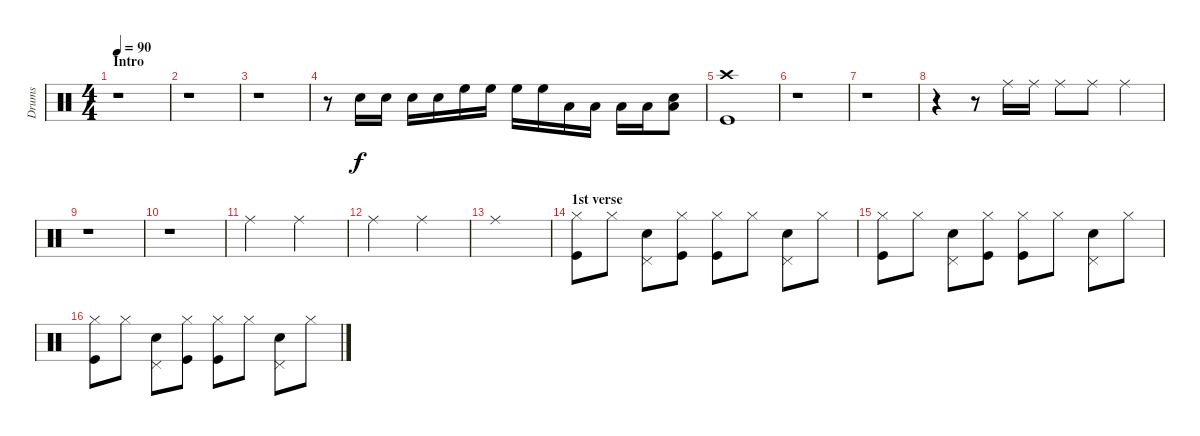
\track ("Drums" "Drums") {instrument percussion}
\staff {score}
\articulation defaults
\ts (4 4)
\section ("" "Intro")
\tempo 90
\clef neutral
\ks c
r.1{dy f} |
r.1 |
r.1 |
r.8 "Snare (hit) 2".16 "Snare (hit) 2".16 "Snare (hit) 2".16 "Snare (hit) 2".16 "High Floor Tom (hit)".16 "High Floor Tom (hit)".16 "High Floor Tom (hit)".16 "High Floor Tom (hit)".16 "Low Tom (hit)".16 "Low Tom (hit)".16 "Low Tom (hit)".16 "Low Tom (hit)".16 ("Snare (hit) 2" "Low Tom (hit)").8 |
("Crash high (hit)" "Kick (hit)").1 |
r.1 |
r.1 |
r.4 r.8 "Ride (middle)".16 "Ride (middle)".16 "Ride (middle)".8 "Ride (middle)".8 "Ride (middle)".4 |
r.1 |
r.1 |
"Ride (middle)".2 "Ride (middle)".2 |
"Ride (middle)".2 "Ride (middle)".2 |
"Ride (middle)".1 |
\section ("" "1st verse")
("Hi-Hat (closed)" "Kick (hit)").8 "Hi-Hat (closed)".8 ("Pedal Hi-Hat (hit)" "Snare (hit) 2").8 ("Hi-Hat (closed)" "Kick (hit)").8 ("Hi-Hat (closed)" "Kick (hit)").8 "Hi-Hat (closed)".8 ("Pedal Hi-Hat (hit)" "Snare (hit) 2").8 "Hi-Hat (closed)".8 |
("Hi-Hat (closed)" "Kick (hit)").8 "Hi-Hat (closed)".8 ("Pedal Hi-Hat (hit)" "Snare (hit) 2").8 ("Hi-Hat (closed)" "Kick (hit)").8 ("Hi-Hat (closed)" "Kick (hit)").8 "Hi-Hat (closed)".8 ("Pedal Hi-Hat (hit)" "Snare (hit) 2").8 "Hi-Hat (closed)".8 |
("Hi-Hat (closed)" "Kick (hit)").8 "Hi-Hat (closed)".8 ("Pedal Hi-Hat (hit)" "Snare (hit) 2").8 ("Hi-Hat (closed)" "Kick (hit)").8 ("Hi-Hat (closed)" "Kick (hit)").8 "Hi-Hat (closed)".8 ("Pedal Hi-Hat (hit)" "Snare (hit) 2").8 "Hi-Hat (closed)".8
